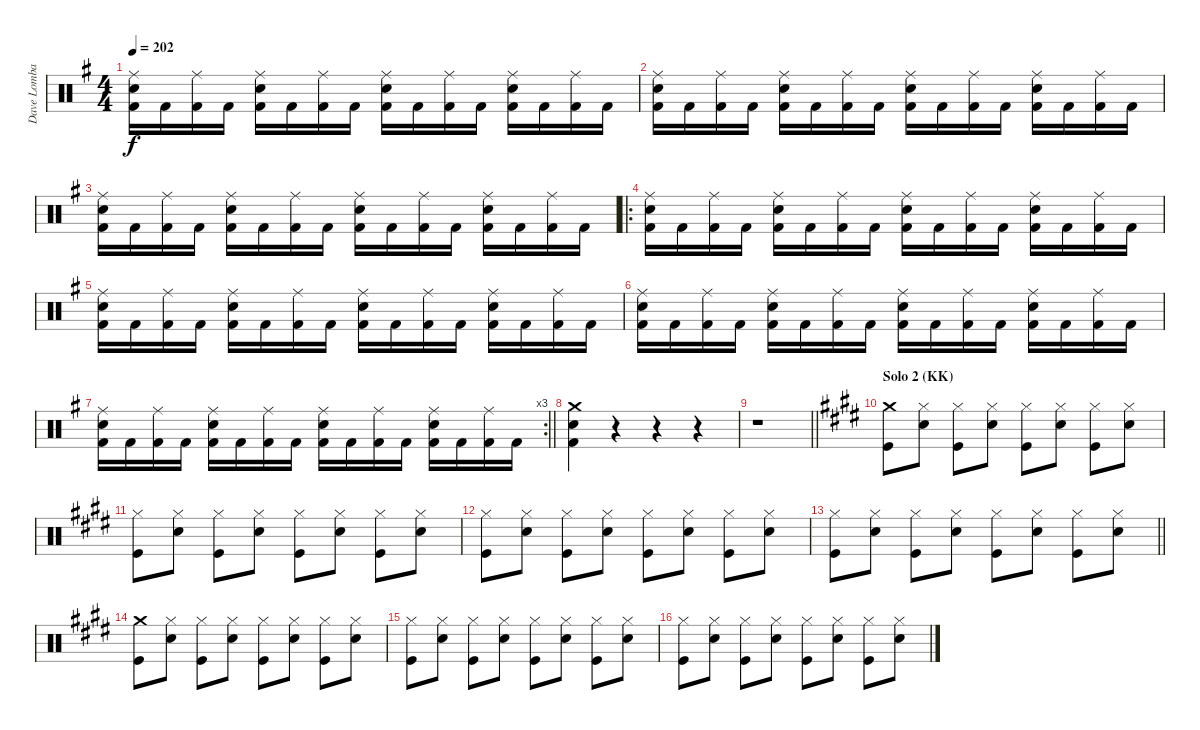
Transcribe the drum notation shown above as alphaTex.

\track ("Dave Lombardo" "Dave Lomba") {instrument percussion}
\staff {score}
\articulation defaults
\ts (4 4)
\tempo 202
\clef neutral
\ks g
("Ride (middle)" "Snare (hit) 2" "Kick (hit) 2").16{dy f} "Kick (hit) 2".16 ("Ride (middle)" "Kick (hit) 2").16 "Kick (hit) 2".16 ("Ride (middle)" "Snare (hit) 2" "Kick (hit) 2").16 "Kick (hit) 2".16 ("Ride (middle)" "Kick (hit) 2").16 "Kick (hit) 2".16 ("Ride (middle)" "Snare (hit) 2" "Kick (hit) 2").16 "Kick (hit) 2".16 ("Ride (middle)" "Kick (hit) 2").16 "Kick (hit) 2".16 ("Ride (middle)" "Snare (hit) 2" "Kick (hit) 2").16 "Kick (hit) 2".16 ("Ride (middle)" "Kick (hit) 2").16 "Kick (hit) 2".16 |
("Ride (middle)" "Snare (hit) 2" "Kick (hit) 2").16 "Kick (hit) 2".16 ("Ride (middle)" "Kick (hit) 2").16 "Kick (hit) 2".16 ("Ride (middle)" "Snare (hit) 2" "Kick (hit) 2").16 "Kick (hit) 2".16 ("Ride (middle)" "Kick (hit) 2").16 "Kick (hit) 2".16 ("Ride (middle)" "Snare (hit) 2" "Kick (hit) 2").16 "Kick (hit) 2".16 ("Ride (middle)" "Kick (hit) 2").16 "Kick (hit) 2".16 ("Ride (middle)" "Snare (hit) 2" "Kick (hit) 2").16 "Kick (hit) 2".16 ("Ride (middle)" "Kick (hit) 2").16 "Kick (hit) 2".16 |
("Ride (middle)" "Snare (hit) 2" "Kick (hit) 2").16 "Kick (hit) 2".16 ("Ride (middle)" "Kick (hit) 2").16 "Kick (hit) 2".16 ("Ride (middle)" "Snare (hit) 2" "Kick (hit) 2").16 "Kick (hit) 2".16 ("Ride (middle)" "Kick (hit) 2").16 "Kick (hit) 2".16 ("Ride (middle)" "Snare (hit) 2" "Kick (hit) 2").16 "Kick (hit) 2".16 ("Ride (middle)" "Kick (hit) 2").16 "Kick (hit) 2".16 ("Ride (middle)" "Snare (hit) 2" "Kick (hit) 2").16 "Kick (hit) 2".16 ("Ride (middle)" "Kick (hit) 2").16 "Kick (hit) 2".16 |
\ro
("Ride (middle)" "Snare (hit) 2" "Kick (hit) 2").16 "Kick (hit) 2".16 ("Ride (middle)" "Kick (hit) 2").16 "Kick (hit) 2".16 ("Ride (middle)" "Snare (hit) 2" "Kick (hit) 2").16 "Kick (hit) 2".16 ("Ride (middle)" "Kick (hit) 2").16 "Kick (hit) 2".16 ("Ride (middle)" "Snare (hit) 2" "Kick (hit) 2").16 "Kick (hit) 2".16 ("Ride (middle)" "Kick (hit) 2").16 "Kick (hit) 2".16 ("Ride (middle)" "Snare (hit) 2" "Kick (hit) 2").16 "Kick (hit) 2".16 ("Ride (middle)" "Kick (hit) 2").16 "Kick (hit) 2".16 |
("Ride (middle)" "Snare (hit) 2" "Kick (hit) 2").16 "Kick (hit) 2".16 ("Ride (middle)" "Kick (hit) 2").16 "Kick (hit) 2".16 ("Ride (middle)" "Snare (hit) 2" "Kick (hit) 2").16 "Kick (hit) 2".16 ("Ride (middle)" "Kick (hit) 2").16 "Kick (hit) 2".16 ("Ride (middle)" "Snare (hit) 2" "Kick (hit) 2").16 "Kick (hit) 2".16 ("Ride (middle)" "Kick (hit) 2").16 "Kick (hit) 2".16 ("Ride (middle)" "Snare (hit) 2" "Kick (hit) 2").16 "Kick (hit) 2".16 ("Ride (middle)" "Kick (hit) 2").16 "Kick (hit) 2".16 |
("Ride (middle)" "Snare (hit) 2" "Kick (hit) 2").16 "Kick (hit) 2".16 ("Ride (middle)" "Kick (hit) 2").16 "Kick (hit) 2".16 ("Ride (middle)" "Snare (hit) 2" "Kick (hit) 2").16 "Kick (hit) 2".16 ("Ride (middle)" "Kick (hit) 2").16 "Kick (hit) 2".16 ("Ride (middle)" "Snare (hit) 2" "Kick (hit) 2").16 "Kick (hit) 2".16 ("Ride (middle)" "Kick (hit) 2").16 "Kick (hit) 2".16 ("Ride (middle)" "Snare (hit) 2" "Kick (hit) 2").16 "Kick (hit) 2".16 ("Ride (middle)" "Kick (hit) 2").16 "Kick (hit) 2".16 |
\rc 3
\barLineRight lightlight
("Ride (middle)" "Snare (hit) 2" "Kick (hit) 2").16 "Kick (hit) 2".16 ("Ride (middle)" "Kick (hit) 2").16 "Kick (hit) 2".16 ("Ride (middle)" "Snare (hit) 2" "Kick (hit) 2").16 "Kick (hit) 2".16 ("Ride (middle)" "Kick (hit) 2").16 "Kick (hit) 2".16 ("Ride (middle)" "Snare (hit) 2" "Kick (hit) 2").16 "Kick (hit) 2".16 ("Ride (middle)" "Kick (hit) 2").16 "Kick (hit) 2".16 ("Ride (middle)" "Snare (hit) 2" "Kick (hit) 2").16 "Kick (hit) 2".16 ("Ride (middle)" "Kick (hit) 2").16 "Kick (hit) 2".16 |
("Crash medium (hit)" "Snare (hit) 2" "Kick (hit) 2").4 r.4 r.4 r.4 |
\barLineRight lightlight
r.1 |
\section ("" "Solo 2 (KK)")
\ks e
("Crash medium (hit)" "Kick (hit)").8 ("Hi-Hat (closed)" "Snare (hit) 2").8 ("Hi-Hat (closed)" "Kick (hit)").8 ("Hi-Hat (closed)" "Snare (hit) 2").8 ("Hi-Hat (closed)" "Kick (hit)").8 ("Hi-Hat (closed)" "Snare (hit) 2").8 ("Hi-Hat (closed)" "Kick (hit)").8 ("Hi-Hat (closed)" "Snare (hit) 2").8 |
("Hi-Hat (closed)" "Kick (hit)").8 ("Hi-Hat (closed)" "Snare (hit) 2").8 ("Hi-Hat (closed)" "Kick (hit)").8 ("Hi-Hat (closed)" "Snare (hit) 2").8 ("Hi-Hat (closed)" "Kick (hit)").8 ("Hi-Hat (closed)" "Snare (hit) 2").8 ("Hi-Hat (closed)" "Kick (hit)").8 ("Hi-Hat (closed)" "Snare (hit) 2").8 |
("Hi-Hat (closed)" "Kick (hit)").8 ("Hi-Hat (closed)" "Snare (hit) 2").8 ("Hi-Hat (closed)" "Kick (hit)").8 ("Hi-Hat (closed)" "Snare (hit) 2").8 ("Hi-Hat (closed)" "Kick (hit)").8 ("Hi-Hat (closed)" "Snare (hit) 2").8 ("Hi-Hat (closed)" "Kick (hit)").8 ("Hi-Hat (closed)" "Snare (hit) 2").8 |
\barLineRight lightlight
("Hi-Hat (closed)" "Kick (hit)").8 ("Hi-Hat (closed)" "Snare (hit) 2").8 ("Hi-Hat (closed)" "Kick (hit)").8 ("Hi-Hat (closed)" "Snare (hit) 2").8 ("Hi-Hat (closed)" "Kick (hit)").8 ("Hi-Hat (closed)" "Snare (hit) 2").8 ("Hi-Hat (closed)" "Kick (hit)").8 ("Hi-Hat (closed)" "Snare (hit) 2").8 |
("Crash medium (hit)" "Kick (hit)").8 ("Hi-Hat (closed)" "Snare (hit) 2").8 ("Hi-Hat (closed)" "Kick (hit)").8 ("Hi-Hat (closed)" "Snare (hit) 2").8 ("Hi-Hat (closed)" "Kick (hit)").8 ("Hi-Hat (closed)" "Snare (hit) 2").8 ("Hi-Hat (closed)" "Kick (hit)").8 ("Hi-Hat (closed)" "Snare (hit) 2").8 |
("Hi-Hat (closed)" "Kick (hit)").8 ("Hi-Hat (closed)" "Snare (hit) 2").8 ("Hi-Hat (closed)" "Kick (hit)").8 ("Hi-Hat (closed)" "Snare (hit) 2").8 ("Hi-Hat (closed)" "Kick (hit)").8 ("Hi-Hat (closed)" "Snare (hit) 2").8 ("Hi-Hat (closed)" "Kick (hit)").8 ("Hi-Hat (closed)" "Snare (hit) 2").8 |
("Hi-Hat (closed)" "Kick (hit)").8 ("Hi-Hat (closed)" "Snare (hit) 2").8 ("Hi-Hat (closed)" "Kick (hit)").8 ("Hi-Hat (closed)" "Snare (hit) 2").8 ("Hi-Hat (closed)" "Kick (hit)").8 ("Hi-Hat (closed)" "Snare (hit) 2").8 ("Hi-Hat (closed)" "Kick (hit)").8 ("Hi-Hat (closed)" "Snare (hit) 2").8
